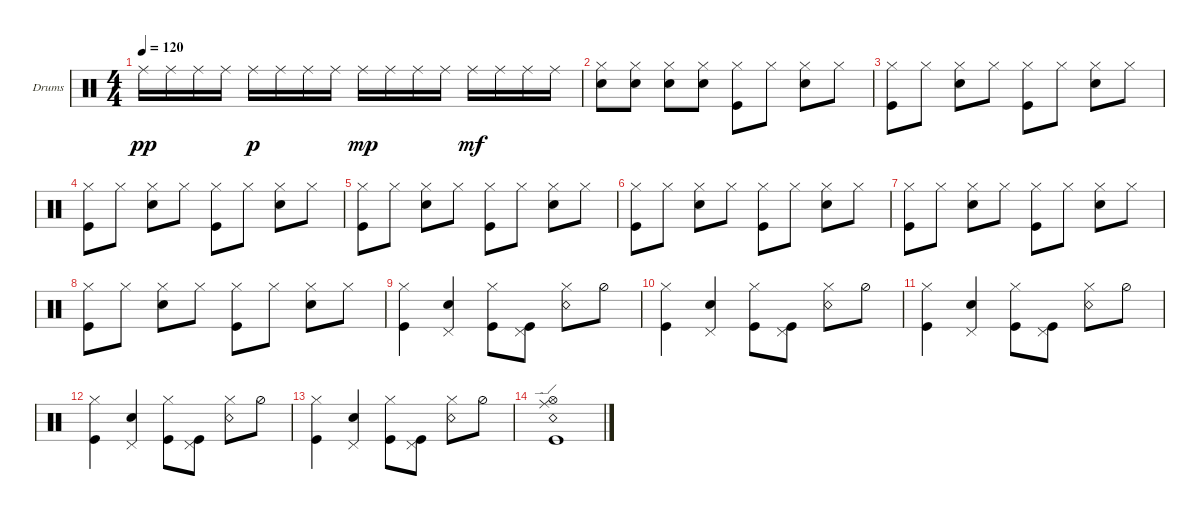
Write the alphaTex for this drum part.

\defaultSystemsLayout 4
\bracketExtendMode groupsimilarinstruments
\firstSystemTrackNameOrientation horizontal
\otherSystemsTrackNameOrientation horizontal
\track ("Drumkit" "Drums") {instrument percussion}
\staff {score}
\articulation defaults
\ts (4 4)
\tempo 120
\clef neutral
\ks c "Ride (middle)".16{dy pp} "Ride (middle)".16 "Ride (middle)".16 "Ride (middle)".16 "Ride (middle)".16{dy p} "Ride (middle)".16 "Ride (middle)".16 "Ride (middle)".16 "Ride (middle)".16{dy mp} "Ride (middle)".16 "Ride (middle)".16 "Ride (middle)".16 "Ride (middle)".16{dy mf} "Ride (middle)".16 "Ride (middle)".16 "Ride (middle)".16
|
("Hi-Hat (closed)" "Snare (hit) 2").8 ("Hi-Hat (closed)" "Snare (hit) 2").8 ("Hi-Hat (closed)" "Snare (hit) 2").8 ("Hi-Hat (closed)" "Snare (hit) 2").8 ("Hi-Hat (closed)" "Kick (hit)").8 "Hi-Hat (closed)".8 ("Hi-Hat (closed)" "Snare (hit) 2").8 "Hi-Hat (closed)".8 |
("Kick (hit)" "Hi-Hat (closed)").8 "Hi-Hat (closed)".8 ("Hi-Hat (closed)" "Snare (hit) 2").8 "Hi-Hat (closed)".8 ("Hi-Hat (closed)" "Kick (hit)").8 "Hi-Hat (closed)".8 ("Hi-Hat (closed)" "Snare (hit) 2").8 "Hi-Hat (closed)".8 |
("Kick (hit)" "Hi-Hat (closed)").8 "Hi-Hat (closed)".8 ("Hi-Hat (closed)" "Snare (hit) 2").8 "Hi-Hat (closed)".8 ("Hi-Hat (closed)" "Kick (hit)").8 "Hi-Hat (closed)".8 ("Hi-Hat (closed)" "Snare (hit) 2").8 "Hi-Hat (closed)".8 |
("Kick (hit)" "Hi-Hat (closed)").8 "Hi-Hat (closed)".8 ("Hi-Hat (closed)" "Snare (hit) 2").8 "Hi-Hat (closed)".8 ("Hi-Hat (closed)" "Kick (hit)").8 "Hi-Hat (closed)".8 ("Hi-Hat (closed)" "Snare (hit) 2").8 "Hi-Hat (closed)".8 |
("Kick (hit)" "Hi-Hat (closed)").8 "Hi-Hat (closed)".8 ("Hi-Hat (closed)" "Snare (hit) 2").8 "Hi-Hat (closed)".8 ("Hi-Hat (closed)" "Kick (hit)").8 "Hi-Hat (closed)".8 ("Hi-Hat (closed)" "Snare (hit) 2").8 "Hi-Hat (closed)".8 |
("Kick (hit)" "Hi-Hat (closed)").8 "Hi-Hat (closed)".8 ("Hi-Hat (closed)" "Snare (hit) 2").8 "Hi-Hat (closed)".8 ("Hi-Hat (closed)" "Kick (hit)").8 "Hi-Hat (closed)".8 ("Hi-Hat (closed)" "Snare (hit) 2").8 "Hi-Hat (closed)".8 |
("Kick (hit)" "Hi-Hat (closed)").8 "Hi-Hat (closed)".8 ("Hi-Hat (closed)" "Snare (hit) 2").8 "Hi-Hat (closed)".8 ("Hi-Hat (closed)" "Kick (hit)").8 "Hi-Hat (closed)".8 ("Hi-Hat (closed)" "Snare (hit) 2").8 "Hi-Hat (closed)".8 |
("Kick (hit)" "Hi-Hat (closed)").4 ("Snare (hit) 2" "Pedal Hi-Hat (hit)").4 ("Kick (hit)" "Hi-Hat (closed)").8 ("Pedal Hi-Hat (hit)" "Kick (hit)").8 ("Hi-Hat (closed)" "Snare (rim shot)").8 "Hi-Hat (half)".8 |
("Kick (hit)" "Hi-Hat (closed)").4 ("Snare (hit) 2" "Pedal Hi-Hat (hit)").4 ("Kick (hit)" "Hi-Hat (closed)").8 ("Pedal Hi-Hat (hit)" "Kick (hit)").8 ("Hi-Hat (closed)" "Snare (rim shot)").8 "Hi-Hat (half)".8 |
("Kick (hit)" "Hi-Hat (closed)").4 ("Snare (hit) 2" "Pedal Hi-Hat (hit)").4 ("Kick (hit)" "Hi-Hat (closed)").8 ("Pedal Hi-Hat (hit)" "Kick (hit)").8 ("Hi-Hat (closed)" "Snare (rim shot)").8 "Hi-Hat (half)".8 |
("Kick (hit)" "Hi-Hat (closed)").4 ("Snare (hit) 2" "Pedal Hi-Hat (hit)").4 ("Kick (hit)" "Hi-Hat (closed)").8 ("Pedal Hi-Hat (hit)" "Kick (hit)").8 ("Hi-Hat (closed)" "Snare (rim shot)").8 "Hi-Hat (half)".8 |
("Kick (hit)" "Hi-Hat (closed)").4 ("Snare (hit) 2" "Pedal Hi-Hat (hit)").4 ("Kick (hit)" "Hi-Hat (closed)").8 ("Pedal Hi-Hat (hit)" "Kick (hit)").8 ("Hi-Hat (closed)" "Snare (rim shot)").8 "Hi-Hat (half)".8 |
("Kick (hit)" "Hi-Hat (open)" "Snare (rim shot)" "Ride (edge)").1
